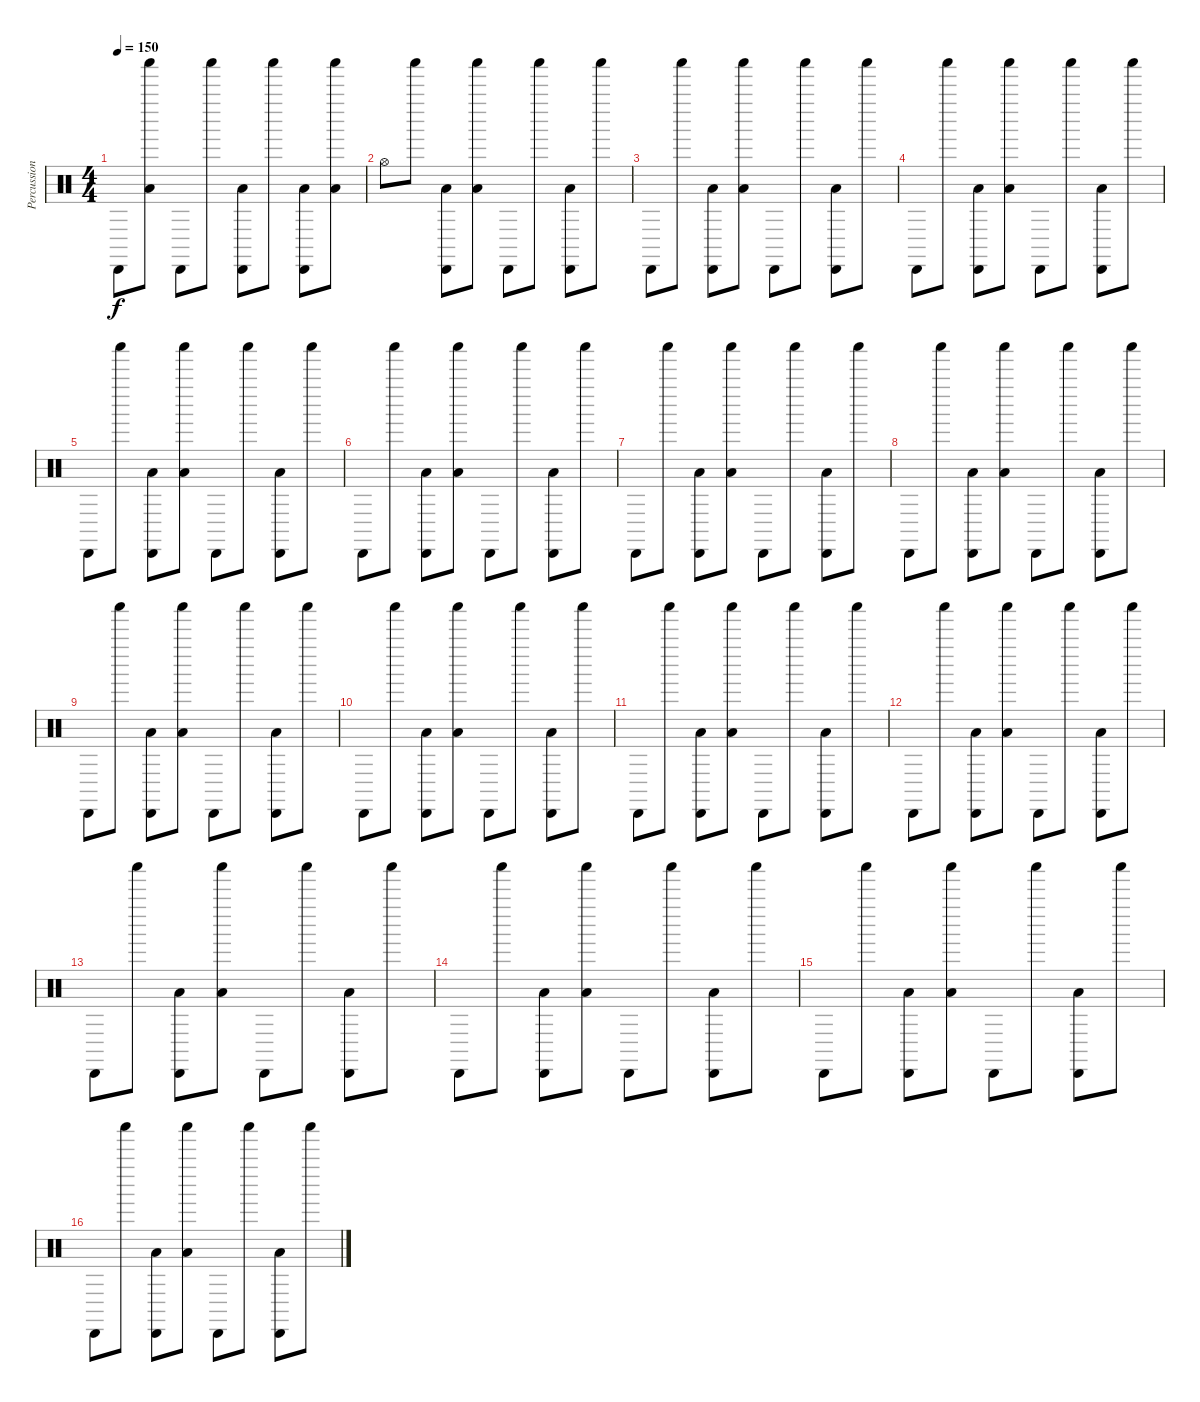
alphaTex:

\track ("Percussion" "Percussion") {instrument percussion}
\staff
\articulation defaults
\ts (4 4)
\tempo 150
\clef neutral
\ks c "Cabasa (hit)".8{dy f}
("Shaker (hit)" "Low Floor Tom (hit)").8 "Cabasa (hit)".8 "Shaker (hit)".8 ("Cabasa (hit)" "Low Floor Tom (hit)").8 "Shaker (hit)".8 ("Cabasa (hit)" "Low Floor Tom (hit)").8 ("Shaker (hit)" "Low Floor Tom (hit)").8 |
"Hi-Hat (open)".8 "Shaker (hit)".8 ("Cabasa (hit)" "Low Floor Tom (hit)").8 ("Shaker (hit)" "Low Floor Tom (hit)").8 "Cabasa (hit)".8 "Shaker (hit)".8 ("Cabasa (hit)" "Low Floor Tom (hit)").8 "Shaker (hit)".8 |
"Cabasa (hit)".8 "Shaker (hit)".8 ("Cabasa (hit)" "Low Floor Tom (hit)").8 ("Shaker (hit)" "Low Floor Tom (hit)").8 "Cabasa (hit)".8 "Shaker (hit)".8 ("Cabasa (hit)" "Low Floor Tom (hit)").8 "Shaker (hit)".8 |
"Cabasa (hit)".8 "Shaker (hit)".8 ("Cabasa (hit)" "Low Floor Tom (hit)").8 ("Shaker (hit)" "Low Floor Tom (hit)").8 "Cabasa (hit)".8 "Shaker (hit)".8 ("Cabasa (hit)" "Low Floor Tom (hit)").8 "Shaker (hit)".8 |
"Cabasa (hit)".8 "Shaker (hit)".8 ("Cabasa (hit)" "Low Floor Tom (hit)").8 ("Shaker (hit)" "Low Floor Tom (hit)").8 "Cabasa (hit)".8 "Shaker (hit)".8 ("Cabasa (hit)" "Low Floor Tom (hit)").8 "Shaker (hit)".8 |
"Cabasa (hit)".8 "Shaker (hit)".8 ("Cabasa (hit)" "Low Floor Tom (hit)").8 ("Shaker (hit)" "Low Floor Tom (hit)").8 "Cabasa (hit)".8 "Shaker (hit)".8 ("Cabasa (hit)" "Low Floor Tom (hit)").8 "Shaker (hit)".8 |
"Cabasa (hit)".8 "Shaker (hit)".8 ("Cabasa (hit)" "Low Floor Tom (hit)").8 ("Shaker (hit)" "Low Floor Tom (hit)").8 "Cabasa (hit)".8 "Shaker (hit)".8 ("Cabasa (hit)" "Low Floor Tom (hit)").8 "Shaker (hit)".8 |
"Cabasa (hit)".8 "Shaker (hit)".8 ("Cabasa (hit)" "Low Floor Tom (hit)").8 ("Shaker (hit)" "Low Floor Tom (hit)").8 "Cabasa (hit)".8 "Shaker (hit)".8 ("Cabasa (hit)" "Low Floor Tom (hit)").8 "Shaker (hit)".8 |
"Cabasa (hit)".8 "Shaker (hit)".8 ("Cabasa (hit)" "Low Floor Tom (hit)").8 ("Shaker (hit)" "Low Floor Tom (hit)").8 "Cabasa (hit)".8 "Shaker (hit)".8 ("Cabasa (hit)" "Low Floor Tom (hit)").8 "Shaker (hit)".8 |
"Cabasa (hit)".8 "Shaker (hit)".8 ("Cabasa (hit)" "Low Floor Tom (hit)").8 ("Shaker (hit)" "Low Floor Tom (hit)").8 "Cabasa (hit)".8 "Shaker (hit)".8 ("Cabasa (hit)" "Low Floor Tom (hit)").8 "Shaker (hit)".8 |
"Cabasa (hit)".8 "Shaker (hit)".8 ("Cabasa (hit)" "Low Floor Tom (hit)").8 ("Shaker (hit)" "Low Floor Tom (hit)").8 "Cabasa (hit)".8 "Shaker (hit)".8 ("Cabasa (hit)" "Low Floor Tom (hit)").8 "Shaker (hit)".8 |
"Cabasa (hit)".8 "Shaker (hit)".8 ("Cabasa (hit)" "Low Floor Tom (hit)").8 ("Shaker (hit)" "Low Floor Tom (hit)").8 "Cabasa (hit)".8 "Shaker (hit)".8 ("Cabasa (hit)" "Low Floor Tom (hit)").8 "Shaker (hit)".8 |
"Cabasa (hit)".8 "Shaker (hit)".8 ("Cabasa (hit)" "Low Floor Tom (hit)").8 ("Shaker (hit)" "Low Floor Tom (hit)").8 "Cabasa (hit)".8 "Shaker (hit)".8 ("Cabasa (hit)" "Low Floor Tom (hit)").8 "Shaker (hit)".8 |
"Cabasa (hit)".8 "Shaker (hit)".8 ("Cabasa (hit)" "Low Floor Tom (hit)").8 ("Shaker (hit)" "Low Floor Tom (hit)").8 "Cabasa (hit)".8 "Shaker (hit)".8 ("Cabasa (hit)" "Low Floor Tom (hit)").8 "Shaker (hit)".8 |
"Cabasa (hit)".8 "Shaker (hit)".8 ("Cabasa (hit)" "Low Floor Tom (hit)").8 ("Shaker (hit)" "Low Floor Tom (hit)").8 "Cabasa (hit)".8 "Shaker (hit)".8 ("Cabasa (hit)" "Low Floor Tom (hit)").8 "Shaker (hit)".8 |
"Cabasa (hit)".8 "Shaker (hit)".8 ("Cabasa (hit)" "Low Floor Tom (hit)").8 ("Shaker (hit)" "Low Floor Tom (hit)").8 "Cabasa (hit)".8 "Shaker (hit)".8 ("Cabasa (hit)" "Low Floor Tom (hit)").8 "Shaker (hit)".8
